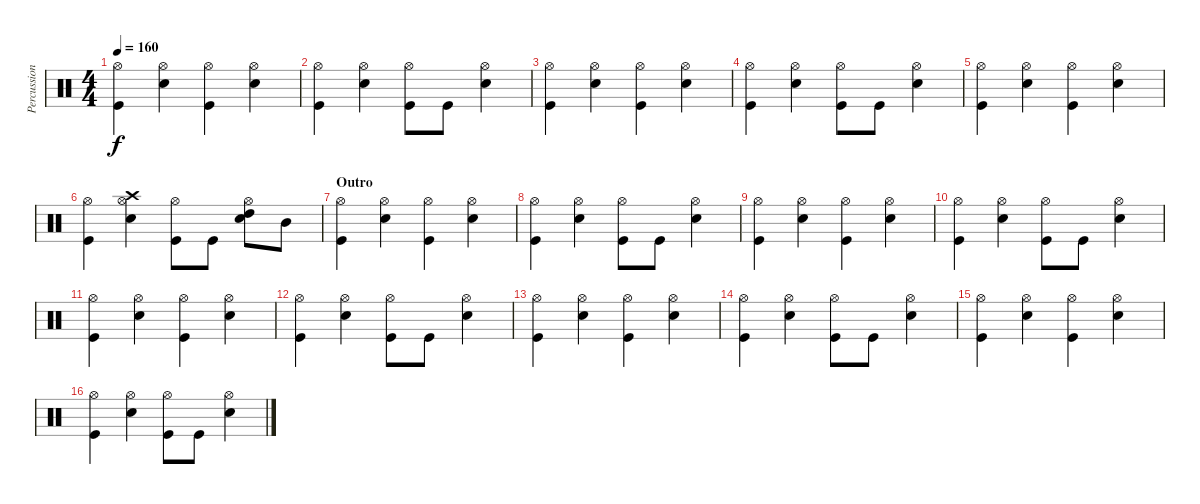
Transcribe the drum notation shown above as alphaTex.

\track ("Percussion" "Percussion") {instrument percussion}
\staff {score}
\articulation defaults
\ts (4 4)
\tempo 160
\clef neutral
\ks c
("Hi-Hat (open)" "Kick (hit)").4{dy f} ("Hi-Hat (open)" "Electric Snare (hit)").4 ("Hi-Hat (open)" "Kick (hit)").4 ("Hi-Hat (open)" "Electric Snare (hit)").4 |
("Hi-Hat (open)" "Kick (hit)").4 ("Hi-Hat (open)" "Electric Snare (hit)").4 ("Hi-Hat (open)" "Kick (hit)").8 "Kick (hit)".8 ("Hi-Hat (open)" "Electric Snare (hit)").4 |
("Hi-Hat (open)" "Kick (hit)").4 ("Hi-Hat (open)" "Electric Snare (hit)").4 ("Hi-Hat (open)" "Kick (hit)").4 ("Hi-Hat (open)" "Electric Snare (hit)").4 |
("Hi-Hat (open)" "Kick (hit)").4 ("Hi-Hat (open)" "Electric Snare (hit)").4 ("Hi-Hat (open)" "Kick (hit)").8 "Kick (hit)".8 ("Hi-Hat (open)" "Electric Snare (hit)").4 |
("Hi-Hat (open)" "Kick (hit)").4 ("Hi-Hat (open)" "Electric Snare (hit)").4 ("Hi-Hat (open)" "Kick (hit)").4 ("Hi-Hat (open)" "Electric Snare (hit)").4 |
("Hi-Hat (open)" "Kick (hit)").4 ("Crash high (hit)" "Hi-Hat (open)" "Electric Snare (hit)").4 ("Hi-Hat (open)" "Kick (hit)").8 "Kick (hit)".8 ("High Tom (hit)" "Hi-Hat (open)" "Electric Snare (hit)").8 "Mid Tom (hit)".8 |
\section ("" "Outro")
("Hi-Hat (open)" "Kick (hit)").4 ("Hi-Hat (open)" "Electric Snare (hit)").4 ("Hi-Hat (open)" "Kick (hit)").4 ("Hi-Hat (open)" "Electric Snare (hit)").4 |
("Hi-Hat (open)" "Kick (hit)").4 ("Hi-Hat (open)" "Electric Snare (hit)").4 ("Hi-Hat (open)" "Kick (hit)").8 "Kick (hit)".8 ("Hi-Hat (open)" "Electric Snare (hit)").4 |
("Hi-Hat (open)" "Kick (hit)").4 ("Hi-Hat (open)" "Electric Snare (hit)").4 ("Hi-Hat (open)" "Kick (hit)").4 ("Hi-Hat (open)" "Electric Snare (hit)").4 |
("Hi-Hat (open)" "Kick (hit)").4 ("Hi-Hat (open)" "Electric Snare (hit)").4 ("Hi-Hat (open)" "Kick (hit)").8 "Kick (hit)".8 ("Hi-Hat (open)" "Electric Snare (hit)").4 |
("Hi-Hat (open)" "Kick (hit)").4 ("Hi-Hat (open)" "Electric Snare (hit)").4 ("Hi-Hat (open)" "Kick (hit)").4 ("Hi-Hat (open)" "Electric Snare (hit)").4 |
("Hi-Hat (open)" "Kick (hit)").4 ("Hi-Hat (open)" "Electric Snare (hit)").4 ("Hi-Hat (open)" "Kick (hit)").8 "Kick (hit)".8 ("Hi-Hat (open)" "Electric Snare (hit)").4 |
("Hi-Hat (open)" "Kick (hit)").4 ("Hi-Hat (open)" "Electric Snare (hit)").4 ("Hi-Hat (open)" "Kick (hit)").4 ("Hi-Hat (open)" "Electric Snare (hit)").4 |
("Hi-Hat (open)" "Kick (hit)").4 ("Hi-Hat (open)" "Electric Snare (hit)").4 ("Hi-Hat (open)" "Kick (hit)").8 "Kick (hit)".8 ("Hi-Hat (open)" "Electric Snare (hit)").4 |
("Hi-Hat (open)" "Kick (hit)").4 ("Hi-Hat (open)" "Electric Snare (hit)").4 ("Hi-Hat (open)" "Kick (hit)").4 ("Hi-Hat (open)" "Electric Snare (hit)").4 |
("Hi-Hat (open)" "Kick (hit)").4 ("Hi-Hat (open)" "Electric Snare (hit)").4 ("Hi-Hat (open)" "Kick (hit)").8 "Kick (hit)".8 ("Hi-Hat (open)" "Electric Snare (hit)").4
